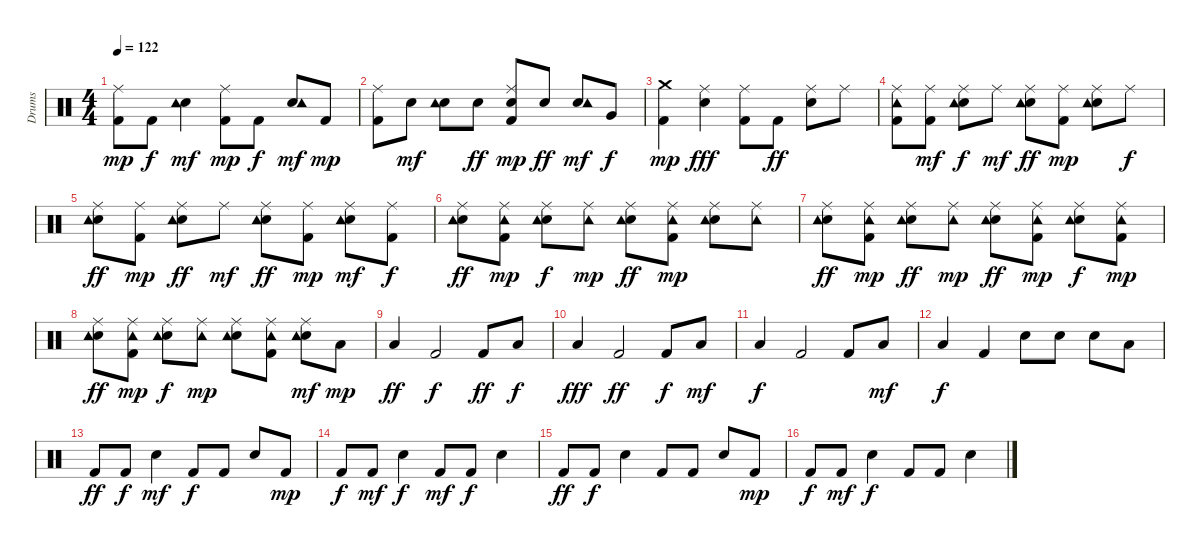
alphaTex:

\track ("Drums" "Drums") {instrument percussion}
\staff {score}
\articulation defaults
\ts (4 4)
\tempo 122
\clef neutral
\ks c
("Kick (hit) 2" "Ride (middle)").8{dy mp} "Kick (hit) 2".8{dy f} ("Snare (hit) 2" "Tambourine (hit)").4{dy mf} ("Kick (hit) 2" "Ride (middle)").8{dy mp} "Kick (hit) 2".8{dy f} ("Snare (hit) 2" "Tambourine (hit)").8{dy mf} "Kick (hit) 2".8{dy mp} |
("Kick (hit) 2" "Ride (middle)").8 "Snare (hit) 2".8{dy mf} ("Snare (hit) 2" "Tambourine (hit)").8 "Snare (hit) 2".8{dy ff} ("Kick (hit) 2" "Snare (hit) 2" "Ride (middle)").8{dy mp} "Snare (hit) 2".8{dy ff} ("Snare (hit) 2" "Tambourine (hit)").8{dy mf} "Very Low Tom (hit)".8{dy f} |
("Kick (hit) 2" "Crash medium (hit)").4{dy mp} ("Snare (hit) 2" "Ride (middle)").4{dy fff} ("Kick (hit) 2" "Ride (middle)").8 "Kick (hit) 2".8{dy ff} ("Snare (hit) 2" "Ride (middle)").8 "Ride (middle)".8 |
("Kick (hit) 2" "Ride (middle)" "Tambourine (hit)").8 ("Kick (hit) 2" "Ride (middle)").8{dy mf} ("Snare (hit) 2" "Ride (middle)" "Tambourine (hit)").8{dy f} "Ride (middle)".8{dy mf} ("Snare (hit) 2" "Ride (middle)" "Tambourine (hit)").8{dy ff} ("Kick (hit) 2" "Ride (middle)").8{dy mp} ("Snare (hit) 2" "Ride (middle)" "Tambourine (hit)").8 "Ride (middle)".8{dy f} |
("Snare (hit) 2" "Ride (middle)" "Tambourine (hit)").8{dy ff} ("Kick (hit) 2" "Ride (middle)").8{dy mp} ("Snare (hit) 2" "Ride (middle)" "Tambourine (hit)").8{dy ff} "Ride (middle)".8{dy mf} ("Snare (hit) 2" "Ride (middle)" "Tambourine (hit)").8{dy ff} ("Kick (hit) 2" "Ride (middle)").8{dy mp} ("Snare (hit) 2" "Ride (middle)" "Tambourine (hit)").8{dy mf} ("Kick (hit) 2" "Ride (middle)").8{dy f} |
("Snare (hit) 2" "Ride (middle)" "Tambourine (hit)").8{dy ff} ("Kick (hit) 2" "Ride (middle)" "Tambourine (hit)").8{dy mp} ("Snare (hit) 2" "Ride (middle)" "Tambourine (hit)").8{dy f} ("Ride (middle)" "Tambourine (hit)").8{dy mp} ("Snare (hit) 2" "Ride (middle)" "Tambourine (hit)").8{dy ff} ("Kick (hit) 2" "Ride (middle)" "Tambourine (hit)").8{dy mp} ("Snare (hit) 2" "Ride (middle)" "Tambourine (hit)").8 ("Ride (middle)" "Tambourine (hit)").8 |
("Snare (hit) 2" "Ride (middle)" "Tambourine (hit)").8{dy ff} ("Kick (hit) 2" "Ride (middle)" "Tambourine (hit)").8{dy mp} ("Snare (hit) 2" "Ride (middle)" "Tambourine (hit)").8{dy ff} ("Ride (middle)" "Tambourine (hit)").8{dy mp} ("Snare (hit) 2" "Ride (middle)" "Tambourine (hit)").8{dy ff} ("Kick (hit) 2" "Ride (middle)" "Tambourine (hit)").8{dy mp} ("Snare (hit) 2" "Ride (middle)" "Tambourine (hit)").8{dy f} ("Kick (hit) 2" "Ride (middle)" "Tambourine (hit)").8{dy mp} |
("Snare (hit) 2" "Ride (middle)" "Tambourine (hit)").8{dy ff} ("Kick (hit) 2" "Ride (middle)" "Tambourine (hit)").8{dy mp} ("Snare (hit) 2" "Ride (middle)" "Tambourine (hit)").8{dy f} ("Ride (middle)" "Tambourine (hit)").8{dy mp} ("Snare (hit) 2" "Ride (middle)" "Tambourine (hit)").8 ("Kick (hit) 2" "Ride (middle)" "Tambourine (hit)").8 ("Snare (hit) 2" "Ride (middle)" "Tambourine (hit)").8{dy mf} "Low Tom (hit)".8{dy mp} |
"Low Tom (hit)".4{dy ff} "Kick (hit) 2".2{dy f} "Kick (hit) 2".8{dy ff} "Low Tom (hit)".8{dy f} |
"Low Tom (hit)".4{dy fff} "Kick (hit) 2".2{dy ff} "Kick (hit) 2".8{dy f} "Low Tom (hit)".8{dy mf} |
"Low Tom (hit)".4{dy f} "Kick (hit) 2".2 "Kick (hit) 2".8 "Low Tom (hit)".8{dy mf} |
"Low Tom (hit)".4{dy f} "Kick (hit) 2".4 "Snare (hit) 2".8 "Snare (hit) 2".8 "Snare (hit) 2".8 "Low Tom (hit)".8 |
"Kick (hit) 2".8{dy ff} "Kick (hit) 2".8{dy f} "Snare (hit) 2".4{dy mf} "Kick (hit) 2".8{dy f} "Kick (hit) 2".8 "Snare (hit) 2".8 "Kick (hit) 2".8{dy mp} |
"Kick (hit) 2".8{dy f} "Kick (hit) 2".8{dy mf} "Snare (hit) 2".4{dy f} "Kick (hit) 2".8{dy mf} "Kick (hit) 2".8{dy f} "Snare (hit) 2".4 |
"Kick (hit) 2".8{dy ff} "Kick (hit) 2".8{dy f} "Snare (hit) 2".4 "Kick (hit) 2".8 "Kick (hit) 2".8 "Snare (hit) 2".8 "Kick (hit) 2".8{dy mp} |
"Kick (hit) 2".8{dy f} "Kick (hit) 2".8{dy mf} "Snare (hit) 2".4{dy f} "Kick (hit) 2".8 "Kick (hit) 2".8 "Snare (hit) 2".4
